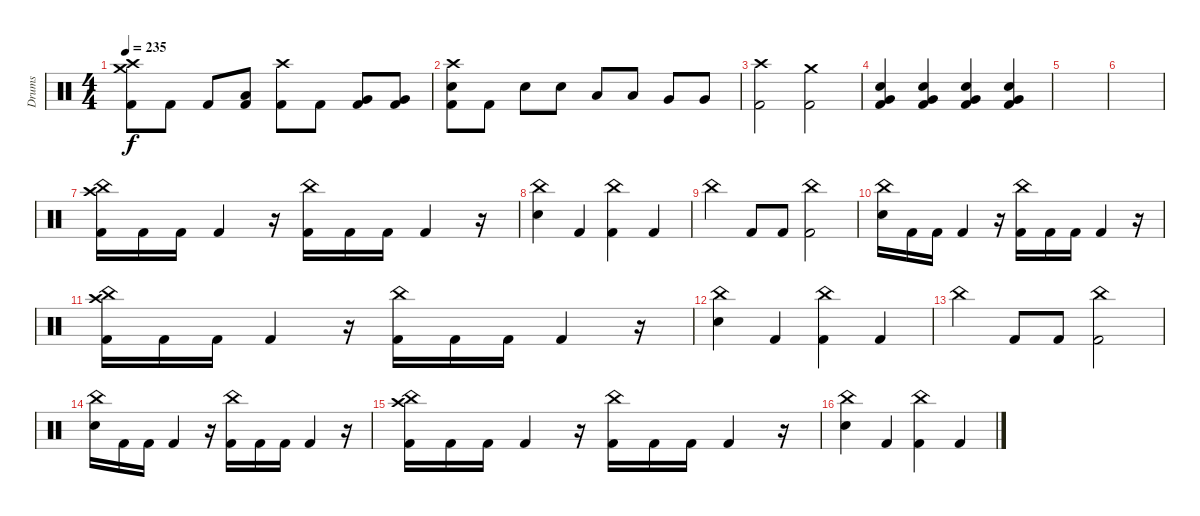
\track ("Drums" "Drums") {instrument percussion}
\staff {score}
\articulation defaults
\ts (4 4)
\tempo 235
\clef neutral
\ks c
("Crash high (hit)" "Crash medium (hit)" "Kick (hit) 2").8{dy f} "Kick (hit) 2".8 "Kick (hit) 2".8 ("Low Tom (hit)" "Kick (hit) 2").8 ("Crash high (hit)" "Kick (hit) 2").8 "Kick (hit) 2".8 ("Very Low Tom (hit)" "Kick (hit) 2").8 ("Very Low Tom (hit)" "Kick (hit) 2").8 |
("Crash high (hit)" "Electric Snare (hit)" "Kick (hit) 2").8 "Kick (hit) 2".8 "Electric Snare (hit)".8 "Electric Snare (hit)".8 "Low Tom (hit)".8 "Low Tom (hit)".8 "Very Low Tom (hit)".8 "Very Low Tom (hit)".8 |
("Crash high (hit)" "Kick (hit) 2").2 ("Crash medium (hit)" "Kick (hit) 2").2 |
("Very Low Tom (hit)" "Electric Snare (hit)" "Kick (hit) 2").4 ("Very Low Tom (hit)" "Electric Snare (hit)" "Kick (hit) 2").4 ("Very Low Tom (hit)" "Electric Snare (hit)" "Kick (hit) 2").4 ("Very Low Tom (hit)" "Electric Snare (hit)" "Kick (hit) 2").4 |
|
|
("China (hit)" "Crash high (hit)" "Kick (hit) 2").16 "Kick (hit) 2".16 "Kick (hit) 2".16 "Kick (hit) 2".4 r.16 ("China (hit)" "Kick (hit) 2").16 "Kick (hit) 2".16 "Kick (hit) 2".16 "Kick (hit) 2".4 r.16 |
("China (hit)" "Electric Snare (hit)").4 "Kick (hit) 2".4 ("China (hit)" "Kick (hit) 2").4 "Kick (hit) 2".4 |
"China (hit)".4 "Kick (hit) 2".8 "Kick (hit) 2".8 ("China (hit)" "Kick (hit) 2").2 |
("China (hit)" "Electric Snare (hit)").16 "Kick (hit) 2".16 "Kick (hit) 2".16 "Kick (hit) 2".4 r.16 ("China (hit)" "Kick (hit) 2").16 "Kick (hit) 2".16 "Kick (hit) 2".16 "Kick (hit) 2".4 r.16 |
("China (hit)" "Crash high (hit)" "Kick (hit) 2").16 "Kick (hit) 2".16 "Kick (hit) 2".16 "Kick (hit) 2".4 r.16 ("China (hit)" "Kick (hit) 2").16 "Kick (hit) 2".16 "Kick (hit) 2".16 "Kick (hit) 2".4 r.16 |
("China (hit)" "Electric Snare (hit)").4 "Kick (hit) 2".4 ("China (hit)" "Kick (hit) 2").4 "Kick (hit) 2".4 |
"China (hit)".4 "Kick (hit) 2".8 "Kick (hit) 2".8 ("China (hit)" "Kick (hit) 2").2 |
("China (hit)" "Electric Snare (hit)").16 "Kick (hit) 2".16 "Kick (hit) 2".16 "Kick (hit) 2".4 r.16 ("China (hit)" "Kick (hit) 2").16 "Kick (hit) 2".16 "Kick (hit) 2".16 "Kick (hit) 2".4 r.16 |
("China (hit)" "Crash high (hit)" "Kick (hit) 2").16 "Kick (hit) 2".16 "Kick (hit) 2".16 "Kick (hit) 2".4 r.16 ("China (hit)" "Kick (hit) 2").16 "Kick (hit) 2".16 "Kick (hit) 2".16 "Kick (hit) 2".4 r.16 |
("China (hit)" "Electric Snare (hit)").4 "Kick (hit) 2".4 ("China (hit)" "Kick (hit) 2").4 "Kick (hit) 2".4
